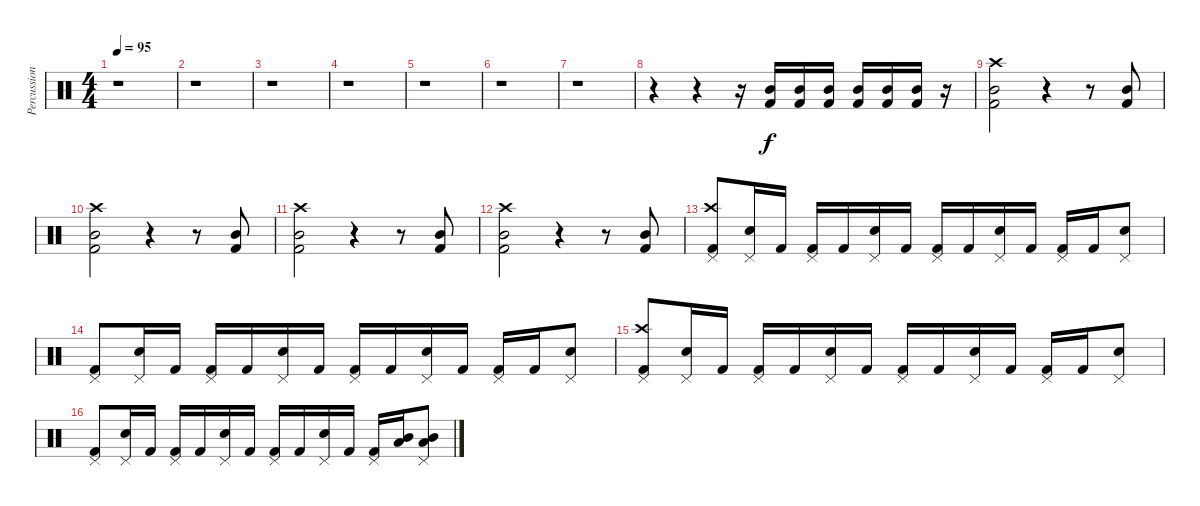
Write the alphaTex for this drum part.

\track ("Percussion" "Percussion") {instrument percussion}
\staff {score}
\articulation defaults
\ts (4 4)
\tempo 95
\clef neutral
\ks c
r.1{dy f} |
r.1 |
r.1 |
r.1 |
r.1 |
r.1 |
r.1 |
r.4 r.4 r.16 ("Mid Tom (hit)" "Kick (hit) 2").16{volume 8} ("Mid Tom (hit)" "Kick (hit) 2").16{volume 10} ("Mid Tom (hit)" "Kick (hit) 2").16{volume 11} ("Mid Tom (hit)" "Kick (hit) 2").16{volume 12} ("Mid Tom (hit)" "Kick (hit) 2").16{volume 13} ("Mid Tom (hit)" "Kick (hit) 2").16 r.16 |
("Crash high (hit)" "Mid Tom (hit)" "Kick (hit) 2").2 r.4 r.8 ("Mid Tom (hit)" "Kick (hit) 2").8 |
("Crash high (hit)" "Mid Tom (hit)" "Kick (hit) 2").2 r.4 r.8 ("Mid Tom (hit)" "Kick (hit) 2").8{bd 240} |
("Crash high (hit)" "Mid Tom (hit)" "Kick (hit) 2").2 r.4 r.8 ("Mid Tom (hit)" "Kick (hit) 2").8 |
("Crash high (hit)" "Mid Tom (hit)" "Kick (hit) 2").2 r.4 r.8 ("Mid Tom (hit)" "Kick (hit) 2").8 |
("Pedal Hi-Hat (hit)" "Crash high (hit)" "Kick (hit) 2").8 ("Pedal Hi-Hat (hit)" "Electric Snare (hit)").16 "Kick (hit) 2".16 ("Pedal Hi-Hat (hit)" "Kick (hit) 2").16 "Kick (hit) 2".16 ("Pedal Hi-Hat (hit)" "Electric Snare (hit)").16 "Kick (hit) 2".16 ("Pedal Hi-Hat (hit)" "Kick (hit) 2").16 "Kick (hit) 2".16 ("Pedal Hi-Hat (hit)" "Electric Snare (hit)").16 "Kick (hit) 2".16 ("Pedal Hi-Hat (hit)" "Kick (hit) 2").16 "Kick (hit) 2".16 ("Pedal Hi-Hat (hit)" "Electric Snare (hit)").8 |
("Pedal Hi-Hat (hit)" "Kick (hit) 2").8 ("Pedal Hi-Hat (hit)" "Electric Snare (hit)").16 "Kick (hit) 2".16 ("Pedal Hi-Hat (hit)" "Kick (hit) 2").16 "Kick (hit) 2".16 ("Pedal Hi-Hat (hit)" "Electric Snare (hit)").16 "Kick (hit) 2".16 ("Pedal Hi-Hat (hit)" "Kick (hit) 2").16 "Kick (hit) 2".16 ("Pedal Hi-Hat (hit)" "Electric Snare (hit)").16 "Kick (hit) 2".16 ("Pedal Hi-Hat (hit)" "Kick (hit) 2").16 "Kick (hit) 2".16 ("Pedal Hi-Hat (hit)" "Electric Snare (hit)").8 |
("Pedal Hi-Hat (hit)" "Crash high (hit)" "Kick (hit) 2").8 ("Pedal Hi-Hat (hit)" "Electric Snare (hit)").16 "Kick (hit) 2".16 ("Pedal Hi-Hat (hit)" "Kick (hit) 2").16 "Kick (hit) 2".16 ("Pedal Hi-Hat (hit)" "Electric Snare (hit)").16 "Kick (hit) 2".16 ("Pedal Hi-Hat (hit)" "Kick (hit) 2").16 "Kick (hit) 2".16 ("Pedal Hi-Hat (hit)" "Electric Snare (hit)").16 "Kick (hit) 2".16 ("Pedal Hi-Hat (hit)" "Kick (hit) 2").16 "Kick (hit) 2".16 ("Pedal Hi-Hat (hit)" "Electric Snare (hit)").8 |
("Pedal Hi-Hat (hit)" "Kick (hit) 2").8 ("Pedal Hi-Hat (hit)" "Electric Snare (hit)").16 "Kick (hit) 2".16 ("Pedal Hi-Hat (hit)" "Kick (hit) 2").16 "Kick (hit) 2".16 ("Pedal Hi-Hat (hit)" "Electric Snare (hit)").16 "Kick (hit) 2".16 ("Pedal Hi-Hat (hit)" "Kick (hit) 2").16 "Kick (hit) 2".16 ("Pedal Hi-Hat (hit)" "Electric Snare (hit)").16 "Kick (hit) 2".16 ("Pedal Hi-Hat (hit)" "Kick (hit) 2").16 ("Mid Tom (hit)" "Low Tom (hit)").16 ("Pedal Hi-Hat (hit)" "Mid Tom (hit)" "Low Tom (hit)").8
